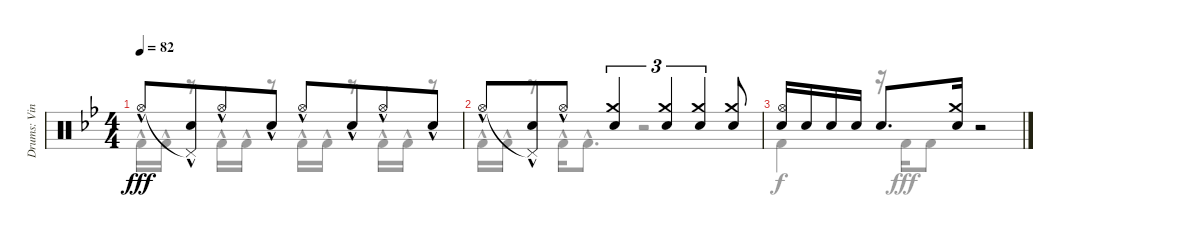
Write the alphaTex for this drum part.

\track ("Drums: Vinny" "Drums: Vin") {instrument percussion}
\staff {score}
\articulation defaults
\voice
\ts (4 4)
\tempo 82
\clef neutral
\ks bb "Hi-Hat (open)"{hac}.8{dy fff}
("Pedal Hi-Hat (hit)"{t} "Snare (hit) 2"{hac}).8{beam merge} "Hi-Hat (open)"{hac}.8 "Snare (hit) 2"{hac}.8 "Hi-Hat (open)"{hac}.8 "Snare (hit) 2"{hac}.8{beam merge} "Hi-Hat (open)"{hac}.8 "Snare (hit) 2"{hac}.8 |
"Hi-Hat (open)"{hac}.8 ("Pedal Hi-Hat (hit)"{t} "Snare (hit) 2"{hac}).8{beam merge} "Hi-Hat (open)"{hac}.8 ("Crash medium (hit)" "Snare (hit) 2").4{tu (3 2)} ("Crash medium (hit)" "Snare (hit) 2").4{tu (3 2)} ("Crash medium (hit)" "Snare (hit) 2").4{tu (3 2)} ("Crash medium (hit)" "Snare (hit) 2").8 |
("Hi-Hat (open)" "Snare (hit) 2").16 "Snare (hit) 2".16 "Snare (hit) 2".16 "Snare (hit) 2".16 "Snare (hit) 2".8{d} ("Crash medium (hit)" "Snare (hit) 2").16 r.2
\voice
\clef neutral
\ottava regular
\simile none
\ks bb "Kick (hit) 2"{hac}.16{dy fff} "Kick (hit) 2"{hac}.16
r.8 "Kick (hit) 2"{hac}.16 "Kick (hit) 2"{hac}.16 r.8 "Kick (hit) 2"{hac}.16 "Kick (hit) 2"{hac}.16 r.8 "Kick (hit) 2"{hac}.16 "Kick (hit) 2"{hac}.16 r.8 |
"Kick (hit) 2"{hac}.16 "Kick (hit) 2"{hac}.16 r.8 "Kick (hit) 2"{hac}.16 "Kick (hit) 2"{hac}.8{d} r.2 |
"Kick (hit) 2".4{dy f} r.16 "Kick (hit) 2".16{dy fff} "Kick (hit) 2".8 r.2
